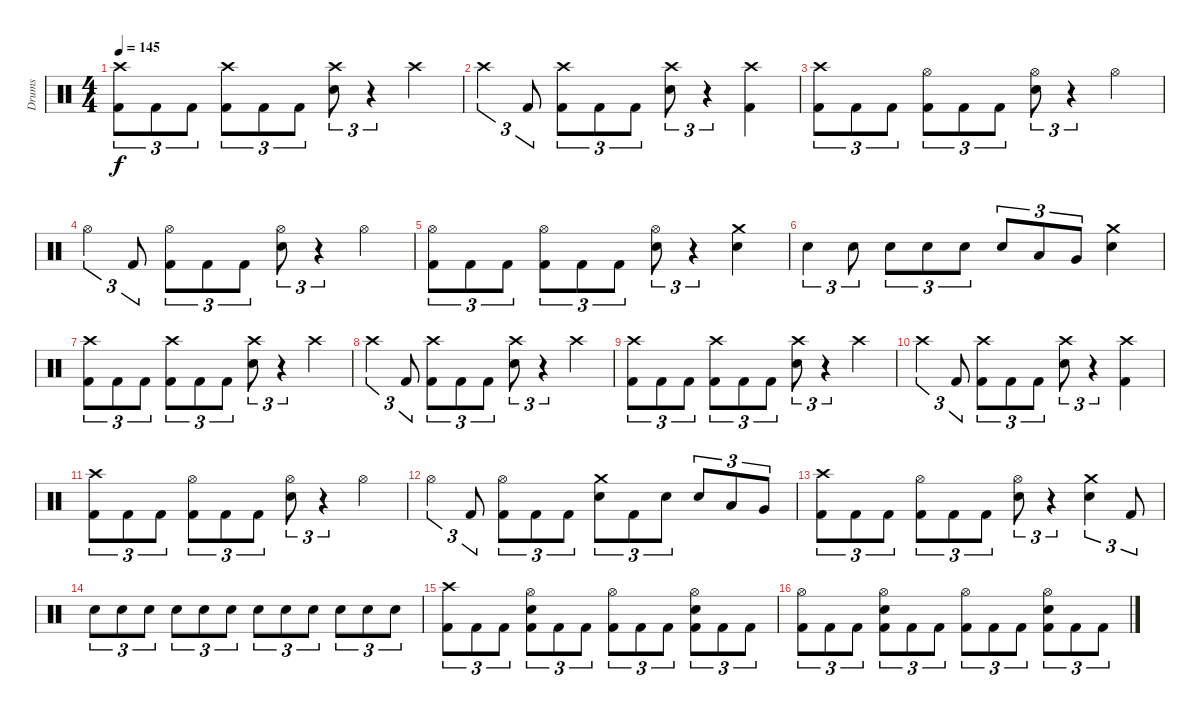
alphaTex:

\track ("Drums" "Drums") {instrument percussion}
\staff {score}
\articulation defaults
\ts (4 4)
\tempo 145
\clef neutral
\ks c
("Crash high (hit)" "Kick (hit) 2").8{tu (3 2) dy f} "Kick (hit) 2".8{tu (3 2)} "Kick (hit) 2".8{tu (3 2)} ("Crash high (hit)" "Kick (hit) 2").8{tu (3 2)} "Kick (hit) 2".8{tu (3 2)} "Kick (hit) 2".8{tu (3 2)} ("Crash high (hit)" "Electric Snare (hit)").8{tu (3 2)} r.4{tu (3 2)} "Crash high (hit)".4 |
"Crash high (hit)".4{tu (3 2)} "Kick (hit) 2".8{tu (3 2)} ("Crash high (hit)" "Kick (hit) 2").8{tu (3 2)} "Kick (hit) 2".8{tu (3 2)} "Kick (hit) 2".8{tu (3 2)} ("Crash high (hit)" "Electric Snare (hit)").8{tu (3 2)} r.4{tu (3 2)} ("Crash high (hit)" "Kick (hit) 2").4 |
("Crash high (hit)" "Kick (hit) 2").8{tu (3 2)} "Kick (hit) 2".8{tu (3 2)} "Kick (hit) 2".8{tu (3 2)} ("Hi-Hat (open)" "Kick (hit) 2").8{tu (3 2)} "Kick (hit) 2".8{tu (3 2)} "Kick (hit) 2".8{tu (3 2)} ("Hi-Hat (open)" "Electric Snare (hit)").8{tu (3 2)} r.4{tu (3 2)} "Hi-Hat (open)".4 |
"Hi-Hat (open)".4{tu (3 2)} "Kick (hit) 2".8{tu (3 2)} ("Hi-Hat (open)" "Kick (hit) 2").8{tu (3 2)} "Kick (hit) 2".8{tu (3 2)} "Kick (hit) 2".8{tu (3 2)} ("Hi-Hat (open)" "Electric Snare (hit)").8{tu (3 2)} r.4{tu (3 2)} "Hi-Hat (open)".4 |
("Hi-Hat (open)" "Kick (hit) 2").8{tu (3 2)} "Kick (hit) 2".8{tu (3 2)} "Kick (hit) 2".8{tu (3 2)} ("Hi-Hat (open)" "Kick (hit) 2").8{tu (3 2)} "Kick (hit) 2".8{tu (3 2)} "Kick (hit) 2".8{tu (3 2)} ("Hi-Hat (open)" "Electric Snare (hit)").8{tu (3 2)} r.4{tu (3 2)} ("Crash medium (hit)" "Electric Snare (hit)").4 |
"Electric Snare (hit)".4{tu (3 2)} "Electric Snare (hit)".8{tu (3 2)} "Electric Snare (hit)".8{tu (3 2)} "Electric Snare (hit)".8{tu (3 2)} "Electric Snare (hit)".8{tu (3 2)} "Electric Snare (hit)".8{tu (3 2)} "Low Tom (hit)".8{tu (3 2)} "Very Low Tom (hit)".8{tu (3 2)} ("Crash medium (hit)" "Electric Snare (hit)").4 |
("Crash high (hit)" "Kick (hit) 2").8{tu (3 2)} "Kick (hit) 2".8{tu (3 2)} "Kick (hit) 2".8{tu (3 2)} ("Crash high (hit)" "Kick (hit) 2").8{tu (3 2)} "Kick (hit) 2".8{tu (3 2)} "Kick (hit) 2".8{tu (3 2)} ("Crash high (hit)" "Electric Snare (hit)").8{tu (3 2)} r.4{tu (3 2)} "Crash high (hit)".4 |
"Crash high (hit)".4{tu (3 2)} "Kick (hit) 2".8{tu (3 2)} ("Crash high (hit)" "Kick (hit) 2").8{tu (3 2)} "Kick (hit) 2".8{tu (3 2)} "Kick (hit) 2".8{tu (3 2)} ("Crash high (hit)" "Electric Snare (hit)").8{tu (3 2)} r.4{tu (3 2)} "Crash high (hit)".4 |
("Crash high (hit)" "Kick (hit) 2").8{tu (3 2)} "Kick (hit) 2".8{tu (3 2)} "Kick (hit) 2".8{tu (3 2)} ("Crash high (hit)" "Kick (hit) 2").8{tu (3 2)} "Kick (hit) 2".8{tu (3 2)} "Kick (hit) 2".8{tu (3 2)} ("Crash high (hit)" "Electric Snare (hit)").8{tu (3 2)} r.4{tu (3 2)} "Crash high (hit)".4 |
"Crash high (hit)".4{tu (3 2)} "Kick (hit) 2".8{tu (3 2)} ("Crash high (hit)" "Kick (hit) 2").8{tu (3 2)} "Kick (hit) 2".8{tu (3 2)} "Kick (hit) 2".8{tu (3 2)} ("Crash high (hit)" "Electric Snare (hit)").8{tu (3 2)} r.4{tu (3 2)} ("Crash high (hit)" "Kick (hit) 2").4 |
("Crash high (hit)" "Kick (hit) 2").8{tu (3 2)} "Kick (hit) 2".8{tu (3 2)} "Kick (hit) 2".8{tu (3 2)} ("Hi-Hat (open)" "Kick (hit) 2").8{tu (3 2)} "Kick (hit) 2".8{tu (3 2)} "Kick (hit) 2".8{tu (3 2)} ("Hi-Hat (open)" "Electric Snare (hit)").8{tu (3 2)} r.4{tu (3 2)} "Hi-Hat (open)".4 |
"Hi-Hat (open)".4{tu (3 2)} "Kick (hit) 2".8{tu (3 2)} ("Hi-Hat (open)" "Kick (hit) 2").8{tu (3 2)} "Kick (hit) 2".8{tu (3 2)} "Kick (hit) 2".8{tu (3 2)} ("Crash medium (hit)" "Electric Snare (hit)").8{tu (3 2)} "Kick (hit) 2".8{tu (3 2)} "Electric Snare (hit)".8{tu (3 2)} "Electric Snare (hit)".8{tu (3 2)} "Low Tom (hit)".8{tu (3 2)} "Very Low Tom (hit)".8{tu (3 2)} |
("Crash high (hit)" "Kick (hit) 2").8{tu (3 2)} "Kick (hit) 2".8{tu (3 2)} "Kick (hit) 2".8{tu (3 2)} ("Hi-Hat (open)" "Kick (hit) 2").8{tu (3 2)} "Kick (hit) 2".8{tu (3 2)} "Kick (hit) 2".8{tu (3 2)} ("Hi-Hat (open)" "Electric Snare (hit)").8{tu (3 2)} r.4{tu (3 2)} ("Crash medium (hit)" "Electric Snare (hit)").4{tu (3 2)} "Kick (hit) 2".8{tu (3 2)} |
"Electric Snare (hit)".8{tu (3 2)} "Electric Snare (hit)".8{tu (3 2)} "Electric Snare (hit)".8{tu (3 2)} "Electric Snare (hit)".8{tu (3 2)} "Electric Snare (hit)".8{tu (3 2)} "Electric Snare (hit)".8{tu (3 2)} "Electric Snare (hit)".8{tu (3 2)} "Electric Snare (hit)".8{tu (3 2)} "Electric Snare (hit)".8{tu (3 2)} "Electric Snare (hit)".8{tu (3 2)} "Electric Snare (hit)".8{tu (3 2)} "Electric Snare (hit)".8{tu (3 2)} |
("Crash high (hit)" "Kick (hit) 2").8{tu (3 2)} "Kick (hit) 2".8{tu (3 2)} "Kick (hit) 2".8{tu (3 2)} ("Hi-Hat (open)" "Electric Snare (hit)" "Kick (hit) 2").8{tu (3 2)} "Kick (hit) 2".8{tu (3 2)} "Kick (hit) 2".8{tu (3 2)} ("Hi-Hat (open)" "Kick (hit) 2").8{tu (3 2)} "Kick (hit) 2".8{tu (3 2)} "Kick (hit) 2".8{tu (3 2)} ("Hi-Hat (open)" "Electric Snare (hit)" "Kick (hit) 2").8{tu (3 2)} "Kick (hit) 2".8{tu (3 2)} "Kick (hit) 2".8{tu (3 2)} |
("Hi-Hat (open)" "Kick (hit) 2").8{tu (3 2)} "Kick (hit) 2".8{tu (3 2)} "Kick (hit) 2".8{tu (3 2)} ("Hi-Hat (open)" "Electric Snare (hit)" "Kick (hit) 2").8{tu (3 2)} "Kick (hit) 2".8{tu (3 2)} "Kick (hit) 2".8{tu (3 2)} ("Hi-Hat (open)" "Kick (hit) 2").8{tu (3 2)} "Kick (hit) 2".8{tu (3 2)} "Kick (hit) 2".8{tu (3 2)} ("Hi-Hat (open)" "Electric Snare (hit)" "Kick (hit) 2").8{tu (3 2)} "Kick (hit) 2".8{tu (3 2)} "Kick (hit) 2".8{tu (3 2)}
